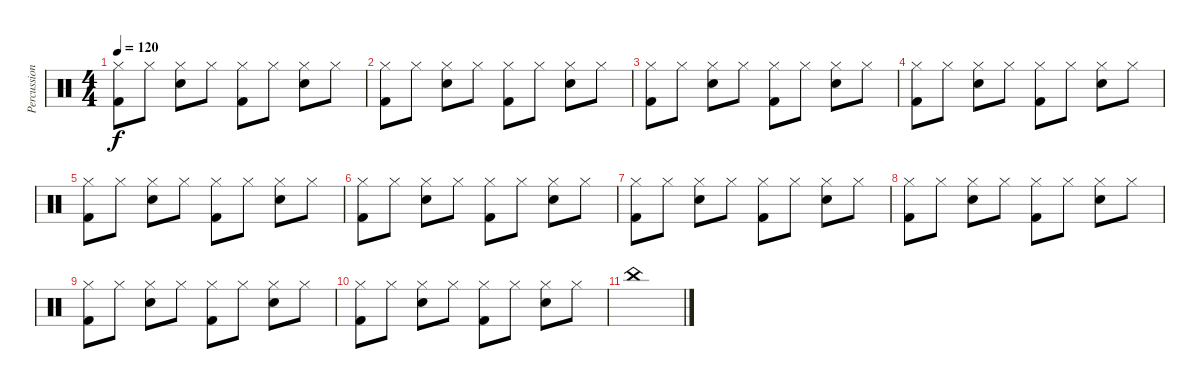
\track ("Percussions" "Percussion") {instrument percussion}
\staff {score}
\articulation defaults
\ts (4 4)
\tempo 120
\clef neutral
\ks c
("Hi-Hat (closed)" "Kick (hit) 2").8{dy f} "Hi-Hat (closed)".8 ("Hi-Hat (closed)" "Electric Snare (hit)").8 "Hi-Hat (closed)".8 ("Hi-Hat (closed)" "Kick (hit) 2").8 "Hi-Hat (closed)".8 ("Hi-Hat (closed)" "Electric Snare (hit)").8 "Hi-Hat (closed)".8 |
("Hi-Hat (closed)" "Kick (hit) 2").8 "Hi-Hat (closed)".8 ("Hi-Hat (closed)" "Electric Snare (hit)").8 "Hi-Hat (closed)".8 ("Hi-Hat (closed)" "Kick (hit) 2").8 "Hi-Hat (closed)".8 ("Hi-Hat (closed)" "Electric Snare (hit)").8 "Hi-Hat (closed)".8 |
("Hi-Hat (closed)" "Kick (hit) 2").8 "Hi-Hat (closed)".8 ("Hi-Hat (closed)" "Electric Snare (hit)").8 "Hi-Hat (closed)".8 ("Hi-Hat (closed)" "Kick (hit) 2").8 "Hi-Hat (closed)".8 ("Hi-Hat (closed)" "Electric Snare (hit)").8 "Hi-Hat (closed)".8 |
("Hi-Hat (closed)" "Kick (hit) 2").8 "Hi-Hat (closed)".8 ("Hi-Hat (closed)" "Electric Snare (hit)").8 "Hi-Hat (closed)".8 ("Hi-Hat (closed)" "Kick (hit) 2").8 "Hi-Hat (closed)".8 ("Hi-Hat (closed)" "Electric Snare (hit)").8 "Hi-Hat (closed)".8 |
("Hi-Hat (closed)" "Kick (hit) 2").8 "Hi-Hat (closed)".8 ("Hi-Hat (closed)" "Electric Snare (hit)").8 "Hi-Hat (closed)".8 ("Hi-Hat (closed)" "Kick (hit) 2").8 "Hi-Hat (closed)".8 ("Hi-Hat (closed)" "Electric Snare (hit)").8 "Hi-Hat (closed)".8 |
("Hi-Hat (closed)" "Kick (hit) 2").8 "Hi-Hat (closed)".8 ("Hi-Hat (closed)" "Electric Snare (hit)").8 "Hi-Hat (closed)".8 ("Hi-Hat (closed)" "Kick (hit) 2").8 "Hi-Hat (closed)".8 ("Hi-Hat (closed)" "Electric Snare (hit)").8 "Hi-Hat (closed)".8 |
("Hi-Hat (closed)" "Kick (hit) 2").8 "Hi-Hat (closed)".8 ("Hi-Hat (closed)" "Electric Snare (hit)").8 "Hi-Hat (closed)".8 ("Hi-Hat (closed)" "Kick (hit) 2").8 "Hi-Hat (closed)".8 ("Hi-Hat (closed)" "Electric Snare (hit)").8 "Hi-Hat (closed)".8 |
("Hi-Hat (closed)" "Kick (hit) 2").8 "Hi-Hat (closed)".8 ("Hi-Hat (closed)" "Electric Snare (hit)").8 "Hi-Hat (closed)".8 ("Hi-Hat (closed)" "Kick (hit) 2").8 "Hi-Hat (closed)".8 ("Hi-Hat (closed)" "Electric Snare (hit)").8 "Hi-Hat (closed)".8 |
("Hi-Hat (closed)" "Kick (hit) 2").8 "Hi-Hat (closed)".8 ("Hi-Hat (closed)" "Electric Snare (hit)").8 "Hi-Hat (closed)".8 ("Hi-Hat (closed)" "Kick (hit) 2").8 "Hi-Hat (closed)".8 ("Hi-Hat (closed)" "Electric Snare (hit)").8 "Hi-Hat (closed)".8 |
("Hi-Hat (closed)" "Kick (hit) 2").8 "Hi-Hat (closed)".8 ("Hi-Hat (closed)" "Electric Snare (hit)").8 "Hi-Hat (closed)".8 ("Hi-Hat (closed)" "Kick (hit) 2").8 "Hi-Hat (closed)".8 ("Hi-Hat (closed)" "Electric Snare (hit)").8 "Hi-Hat (closed)".8 |
"China (hit)".1
